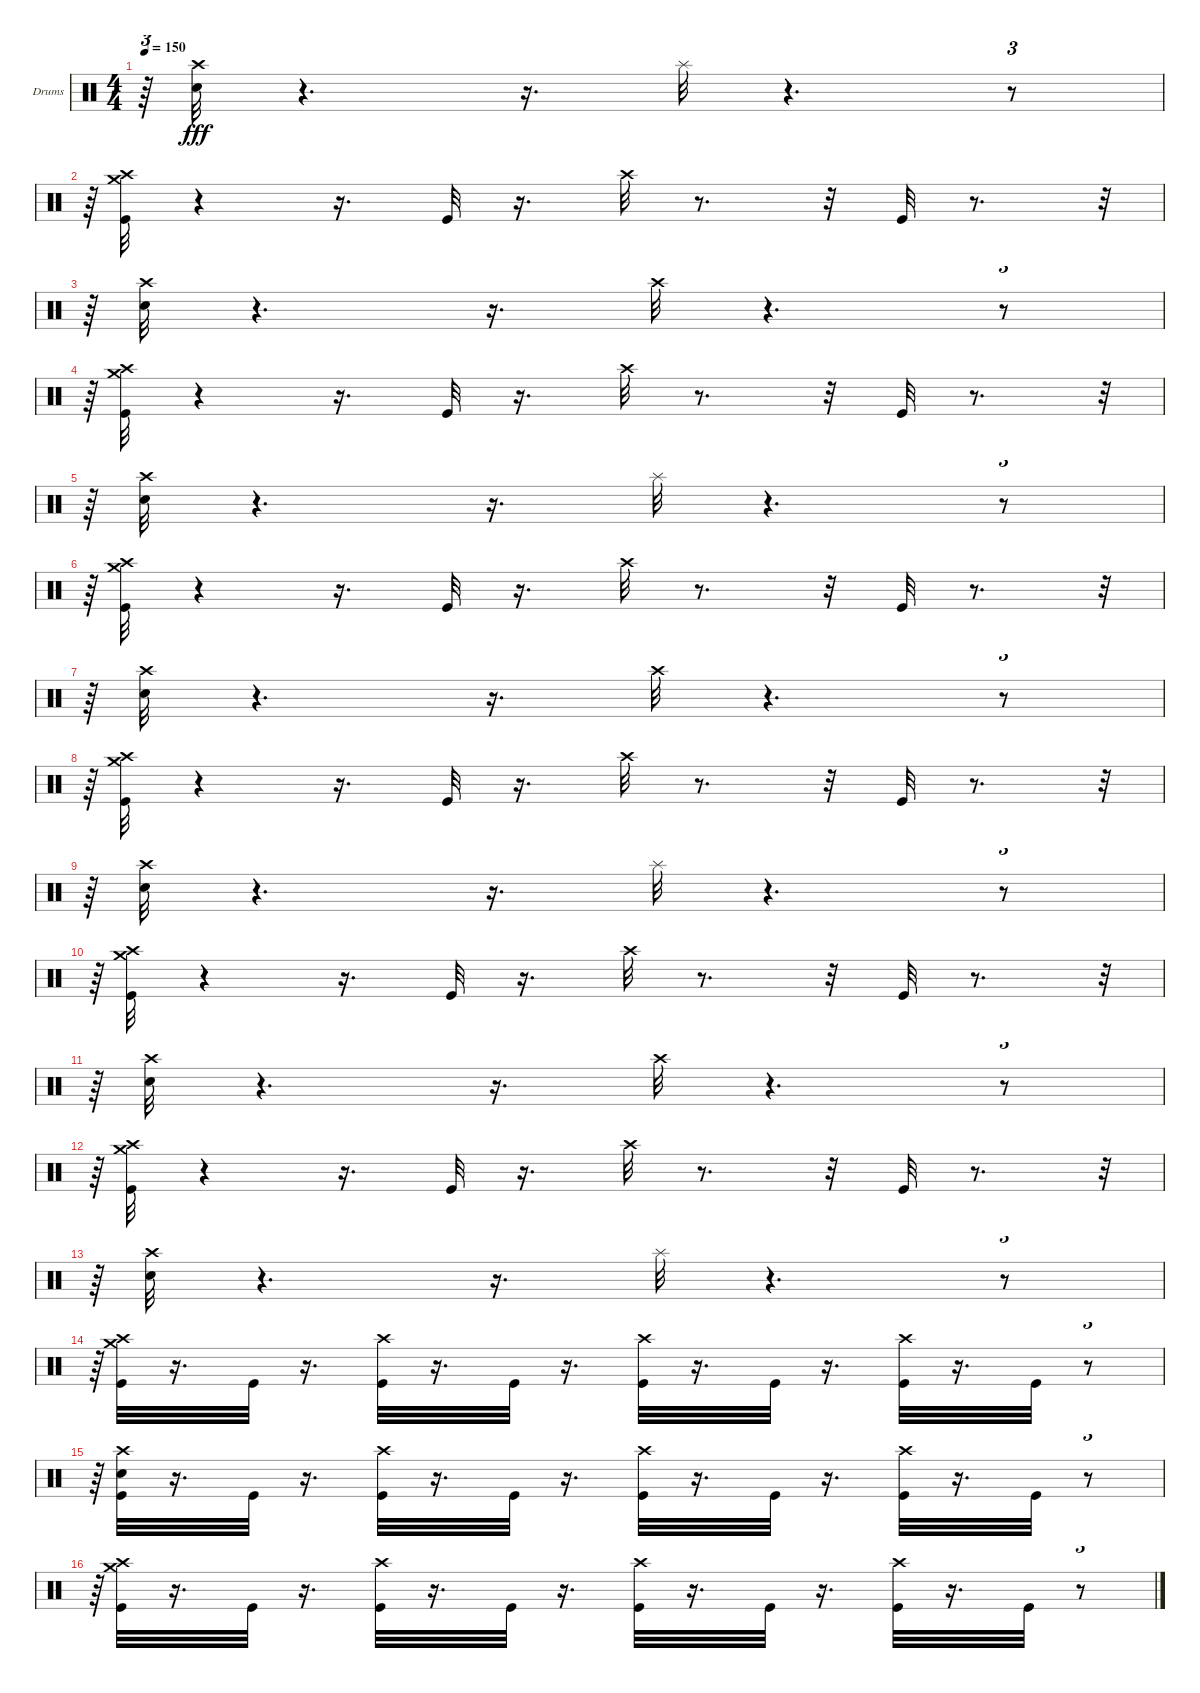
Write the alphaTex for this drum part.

\bracketExtendMode groupsimilarinstruments
\firstSystemTrackNameOrientation horizontal
\otherSystemsTrackNameOrientation horizontal
\track ("Dave McClain" "Drums") {mute instrument percussion}
\staff {score}
\articulation defaults
\ts (4 4)
\tempo 150
\clef neutral
\ks c
r.64{tu (3 2) dy fff} ("Crash high (hit)" "Snare (hit) 2").32 r.4{d} r.16{d} "Splash (hit)".32 r.4{d} r.8{tu (3 2)} |
r.64{tu (3 2)} ("Crash high (hit)" "Crash medium (hit)" "Kick (hit)").32 r.4 r.16{d} "Kick (hit)".32 r.16{d} "Crash high (hit)".32 r.8{d} r.32 "Kick (hit)".32 r.8{d} r.32{tu (3 2)} |
r.64{tu (3 2)} ("Crash high (hit)" "Snare (hit) 2").32 r.4{d} r.16{d} "Crash high (hit)".32 r.4{d} r.8{tu (3 2)} |
r.64{tu (3 2)} ("Crash medium (hit)" "Crash high (hit)" "Kick (hit)").32 r.4 r.16{d} "Kick (hit)".32 r.16{d} "Crash high (hit)".32 r.8{d} r.32 "Kick (hit)".32 r.8{d} r.32{tu (3 2)} |
r.64{tu (3 2)} ("Crash high (hit)" "Snare (hit) 2").32 r.4{d} r.16{d} "Splash (hit)".32 r.4{d} r.8{tu (3 2)} |
r.64{tu (3 2)} ("Crash high (hit)" "Crash medium (hit)" "Kick (hit)").32 r.4 r.16{d} "Kick (hit)".32 r.16{d} "Crash high (hit)".32 r.8{d} r.32 "Kick (hit)".32 r.8{d} r.32{tu (3 2)} |
r.64{tu (3 2)} ("Crash high (hit)" "Snare (hit) 2").32 r.4{d} r.16{d} "Crash high (hit)".32 r.4{d} r.8{tu (3 2)} |
r.64{tu (3 2)} ("Crash medium (hit)" "Crash high (hit)" "Kick (hit)").32 r.4 r.16{d} "Kick (hit)".32 r.16{d} "Crash high (hit)".32 r.8{d} r.32 "Kick (hit)".32 r.8{d} r.32{tu (3 2)} |
r.64{tu (3 2)} ("Crash high (hit)" "Snare (hit) 2").32 r.4{d} r.16{d} "Splash (hit)".32 r.4{d} r.8{tu (3 2)} |
r.64{tu (3 2)} ("Crash high (hit)" "Crash medium (hit)" "Kick (hit)").32 r.4 r.16{d} "Kick (hit)".32 r.16{d} "Crash high (hit)".32 r.8{d} r.32 "Kick (hit)".32 r.8{d} r.32{tu (3 2)} |
r.64{tu (3 2)} ("Crash high (hit)" "Snare (hit) 2").32 r.4{d} r.16{d} "Crash high (hit)".32 r.4{d} r.8{tu (3 2)} |
r.64{tu (3 2)} ("Crash medium (hit)" "Crash high (hit)" "Kick (hit)").32 r.4 r.16{d} "Kick (hit)".32 r.16{d} "Crash high (hit)".32 r.8{d} r.32 "Kick (hit)".32 r.8{d} r.32{tu (3 2)} |
r.64{tu (3 2)} ("Crash high (hit)" "Snare (hit) 2").32 r.4{d} r.16{d} "Splash (hit)".32 r.4{d} r.8{tu (3 2)} |
r.64{tu (3 2)} ("Crash high (hit)" "Crash medium (hit)" "Kick (hit)").32 r.16{d} "Kick (hit)".32 r.16{d} ("Crash high (hit)" "Kick (hit)").32 r.16{d} "Kick (hit)".32 r.16{d} ("Kick (hit)" "Crash high (hit)").32 r.16{d} "Kick (hit)".32 r.16{d} ("Crash high (hit)" "Kick (hit)").32 r.16{d} "Kick (hit)".32 r.8{tu (3 2)} |
r.64{tu (3 2)} ("Kick (hit)" "Crash high (hit)" "Snare (hit) 2").32 r.16{d} "Kick (hit)".32 r.16{d} ("Crash high (hit)" "Kick (hit)").32 r.16{d} "Kick (hit)".32 r.16{d} ("Kick (hit)" "Crash high (hit)").32 r.16{d} "Kick (hit)".32 r.16{d} ("Crash high (hit)" "Kick (hit)").32 r.16{d} "Kick (hit)".32 r.8{tu (3 2)} |
r.64{tu (3 2)} ("Crash medium (hit)" "Crash high (hit)" "Kick (hit)").32 r.16{d} "Kick (hit)".32 r.16{d} ("Crash high (hit)" "Kick (hit)").32 r.16{d} "Kick (hit)".32 r.16{d} ("Kick (hit)" "Crash high (hit)").32 r.16{d} "Kick (hit)".32 r.16{d} ("Crash high (hit)" "Kick (hit)").32 r.16{d} "Kick (hit)".32 r.8{tu (3 2)}
